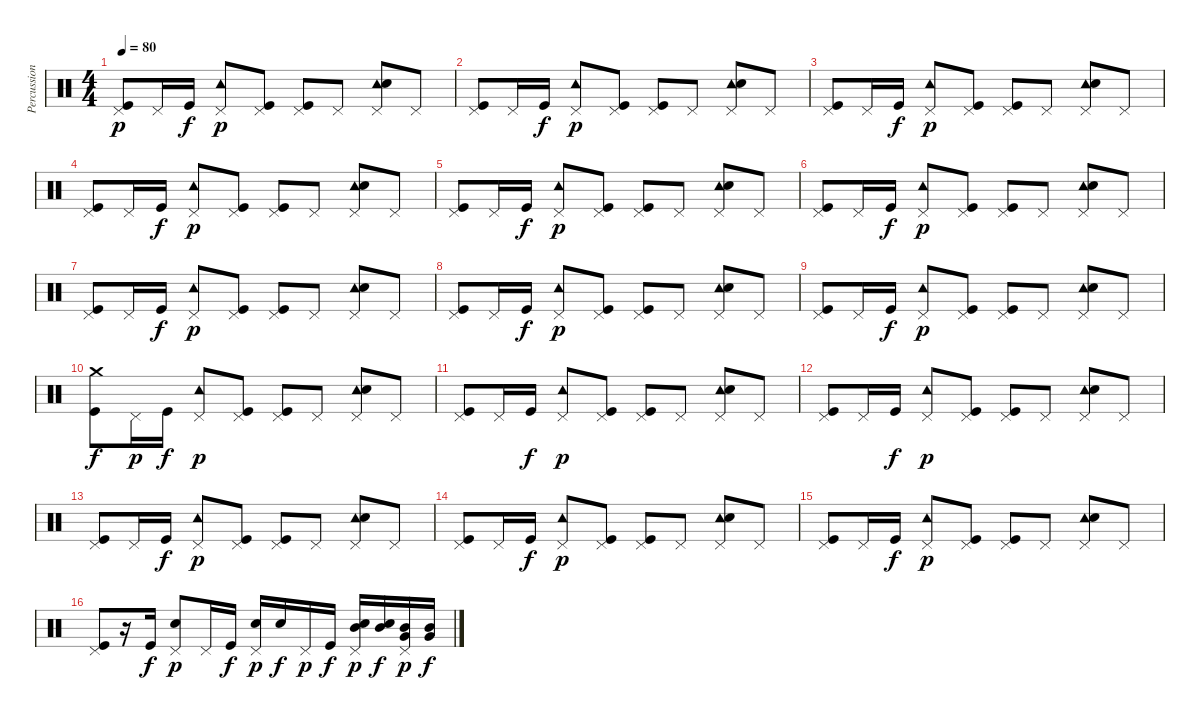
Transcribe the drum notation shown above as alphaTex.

\track ("Percussion" "Percussion") {instrument percussion}
\staff {score}
\articulation defaults
\ts (4 4)
\tempo 80
\clef neutral
\ks c
("Pedal Hi-Hat (hit)" "Kick (hit)").8{dy p} "Pedal Hi-Hat (hit)".16 "Kick (hit)".16{dy f} ("Pedal Hi-Hat (hit)" "Tambourine (hit)").8{dy p} ("Pedal Hi-Hat (hit)" "Kick (hit)").8 ("Pedal Hi-Hat (hit)" "Kick (hit)").8 "Pedal Hi-Hat (hit)".8 ("Pedal Hi-Hat (hit)" "Tambourine (hit)" "Electric Snare (hit)").8 "Pedal Hi-Hat (hit)".8 |
("Pedal Hi-Hat (hit)" "Kick (hit)").8 "Pedal Hi-Hat (hit)".16 "Kick (hit)".16{dy f} ("Pedal Hi-Hat (hit)" "Tambourine (hit)").8{dy p} ("Pedal Hi-Hat (hit)" "Kick (hit)").8 ("Pedal Hi-Hat (hit)" "Kick (hit)").8 "Pedal Hi-Hat (hit)".8 ("Pedal Hi-Hat (hit)" "Tambourine (hit)" "Electric Snare (hit)").8 "Pedal Hi-Hat (hit)".8 |
("Pedal Hi-Hat (hit)" "Kick (hit)").8 "Pedal Hi-Hat (hit)".16 "Kick (hit)".16{dy f} ("Pedal Hi-Hat (hit)" "Tambourine (hit)").8{dy p} ("Pedal Hi-Hat (hit)" "Kick (hit)").8 ("Pedal Hi-Hat (hit)" "Kick (hit)").8 "Pedal Hi-Hat (hit)".8 ("Pedal Hi-Hat (hit)" "Tambourine (hit)" "Electric Snare (hit)").8 "Pedal Hi-Hat (hit)".8 |
("Pedal Hi-Hat (hit)" "Kick (hit)").8 "Pedal Hi-Hat (hit)".16 "Kick (hit)".16{dy f} ("Pedal Hi-Hat (hit)" "Tambourine (hit)").8{dy p} ("Pedal Hi-Hat (hit)" "Kick (hit)").8 ("Pedal Hi-Hat (hit)" "Kick (hit)").8 "Pedal Hi-Hat (hit)".8 ("Pedal Hi-Hat (hit)" "Tambourine (hit)" "Electric Snare (hit)").8 "Pedal Hi-Hat (hit)".8 |
("Pedal Hi-Hat (hit)" "Kick (hit)").8 "Pedal Hi-Hat (hit)".16 "Kick (hit)".16{dy f} ("Pedal Hi-Hat (hit)" "Tambourine (hit)").8{dy p} ("Pedal Hi-Hat (hit)" "Kick (hit)").8 ("Pedal Hi-Hat (hit)" "Kick (hit)").8 "Pedal Hi-Hat (hit)".8 ("Pedal Hi-Hat (hit)" "Tambourine (hit)" "Electric Snare (hit)").8 "Pedal Hi-Hat (hit)".8 |
("Pedal Hi-Hat (hit)" "Kick (hit)").8 "Pedal Hi-Hat (hit)".16 "Kick (hit)".16{dy f} ("Pedal Hi-Hat (hit)" "Tambourine (hit)").8{dy p} ("Pedal Hi-Hat (hit)" "Kick (hit)").8 ("Pedal Hi-Hat (hit)" "Kick (hit)").8 "Pedal Hi-Hat (hit)".8 ("Pedal Hi-Hat (hit)" "Tambourine (hit)" "Electric Snare (hit)").8 "Pedal Hi-Hat (hit)".8 |
("Pedal Hi-Hat (hit)" "Kick (hit)").8 "Pedal Hi-Hat (hit)".16 "Kick (hit)".16{dy f} ("Pedal Hi-Hat (hit)" "Tambourine (hit)").8{dy p} ("Pedal Hi-Hat (hit)" "Kick (hit)").8 ("Pedal Hi-Hat (hit)" "Kick (hit)").8 "Pedal Hi-Hat (hit)".8 ("Pedal Hi-Hat (hit)" "Tambourine (hit)" "Electric Snare (hit)").8 "Pedal Hi-Hat (hit)".8 |
("Pedal Hi-Hat (hit)" "Kick (hit)").8 "Pedal Hi-Hat (hit)".16 "Kick (hit)".16{dy f} ("Pedal Hi-Hat (hit)" "Tambourine (hit)").8{dy p} ("Pedal Hi-Hat (hit)" "Kick (hit)").8 ("Pedal Hi-Hat (hit)" "Kick (hit)").8 "Pedal Hi-Hat (hit)".8 ("Pedal Hi-Hat (hit)" "Tambourine (hit)" "Electric Snare (hit)").8 "Pedal Hi-Hat (hit)".8 |
("Pedal Hi-Hat (hit)" "Kick (hit)").8 "Pedal Hi-Hat (hit)".16 "Kick (hit)".16{dy f} ("Pedal Hi-Hat (hit)" "Tambourine (hit)").8{dy p} ("Pedal Hi-Hat (hit)" "Kick (hit)").8 ("Pedal Hi-Hat (hit)" "Kick (hit)").8 "Pedal Hi-Hat (hit)".8 ("Pedal Hi-Hat (hit)" "Tambourine (hit)" "Electric Snare (hit)").8 "Pedal Hi-Hat (hit)".8 |
("Crash medium (hit)" "Kick (hit)").8{dy f} "Pedal Hi-Hat (hit)".16{dy p} "Kick (hit)".16{dy f} ("Pedal Hi-Hat (hit)" "Tambourine (hit)").8{dy p} ("Pedal Hi-Hat (hit)" "Kick (hit)").8 ("Pedal Hi-Hat (hit)" "Kick (hit)").8 "Pedal Hi-Hat (hit)".8 ("Pedal Hi-Hat (hit)" "Tambourine (hit)" "Electric Snare (hit)").8 "Pedal Hi-Hat (hit)".8 |
("Pedal Hi-Hat (hit)" "Kick (hit)").8 "Pedal Hi-Hat (hit)".16 "Kick (hit)".16{dy f} ("Pedal Hi-Hat (hit)" "Tambourine (hit)").8{dy p} ("Pedal Hi-Hat (hit)" "Kick (hit)").8 ("Pedal Hi-Hat (hit)" "Kick (hit)").8 "Pedal Hi-Hat (hit)".8 ("Pedal Hi-Hat (hit)" "Tambourine (hit)" "Electric Snare (hit)").8 "Pedal Hi-Hat (hit)".8 |
("Pedal Hi-Hat (hit)" "Kick (hit)").8 "Pedal Hi-Hat (hit)".16 "Kick (hit)".16{dy f} ("Pedal Hi-Hat (hit)" "Tambourine (hit)").8{dy p} ("Pedal Hi-Hat (hit)" "Kick (hit)").8 ("Pedal Hi-Hat (hit)" "Kick (hit)").8 "Pedal Hi-Hat (hit)".8 ("Pedal Hi-Hat (hit)" "Tambourine (hit)" "Electric Snare (hit)").8 "Pedal Hi-Hat (hit)".8 |
("Pedal Hi-Hat (hit)" "Kick (hit)").8 "Pedal Hi-Hat (hit)".16 "Kick (hit)".16{dy f} ("Pedal Hi-Hat (hit)" "Tambourine (hit)").8{dy p} ("Pedal Hi-Hat (hit)" "Kick (hit)").8 ("Pedal Hi-Hat (hit)" "Kick (hit)").8 "Pedal Hi-Hat (hit)".8 ("Pedal Hi-Hat (hit)" "Tambourine (hit)" "Electric Snare (hit)").8 "Pedal Hi-Hat (hit)".8 |
("Pedal Hi-Hat (hit)" "Kick (hit)").8 "Pedal Hi-Hat (hit)".16 "Kick (hit)".16{dy f} ("Pedal Hi-Hat (hit)" "Tambourine (hit)").8{dy p} ("Pedal Hi-Hat (hit)" "Kick (hit)").8 ("Pedal Hi-Hat (hit)" "Kick (hit)").8 "Pedal Hi-Hat (hit)".8 ("Pedal Hi-Hat (hit)" "Tambourine (hit)" "Electric Snare (hit)").8 "Pedal Hi-Hat (hit)".8 |
("Pedal Hi-Hat (hit)" "Kick (hit)").8 "Pedal Hi-Hat (hit)".16 "Kick (hit)".16{dy f} ("Pedal Hi-Hat (hit)" "Tambourine (hit)").8{dy p} ("Pedal Hi-Hat (hit)" "Kick (hit)").8 ("Pedal Hi-Hat (hit)" "Kick (hit)").8 "Pedal Hi-Hat (hit)".8 ("Pedal Hi-Hat (hit)" "Tambourine (hit)" "Electric Snare (hit)").8 "Pedal Hi-Hat (hit)".8 |
("Pedal Hi-Hat (hit)" "Kick (hit)").8 r.16 "Kick (hit)".16{dy f} ("Pedal Hi-Hat (hit)" "Electric Snare (hit)").8{dy p} "Pedal Hi-Hat (hit)".16 "Kick (hit)".16{dy f} ("Pedal Hi-Hat (hit)" "Electric Snare (hit)").16{dy p} "Electric Snare (hit)".16{dy f} "Pedal Hi-Hat (hit)".16{dy p} "Kick (hit)".16{dy f} ("Pedal Hi-Hat (hit)" "Electric Snare (hit)" "Mid Tom (hit)").16{dy p} ("Electric Snare (hit)" "Mid Tom (hit)").16{dy f} ("Pedal Hi-Hat (hit)" "Mid Tom (hit)" "Very Low Tom (hit)").16{dy p} ("Mid Tom (hit)" "Very Low Tom (hit)").16{dy f}
